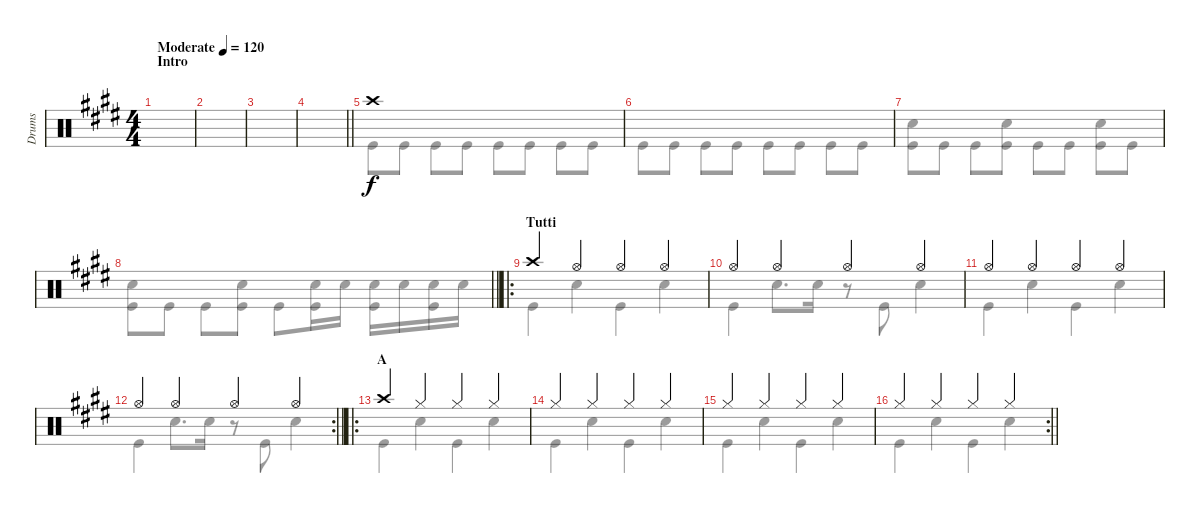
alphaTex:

\track ("Drums" "Drums") {instrument percussion}
\staff {score}
\articulation defaults
\voice
\ts (4 4)
\section ("" "Intro")
\tempo (120 "Moderate")
\clef neutral
\ks e
|
|
|
\barLineRight lightlight
|
"Crash high (hit)".1 |
|
|
\barLineRight lightlight
|
\ro
\section ("" "Tutti")
"Crash high (hit)".4 "Hi-Hat (open)".4 "Hi-Hat (open)".4 "Hi-Hat (open)".4 |
"Hi-Hat (open)".4 "Hi-Hat (open)".4 "Hi-Hat (open)".4 "Hi-Hat (open)".4 |
"Hi-Hat (open)".4 "Hi-Hat (open)".4 "Hi-Hat (open)".4 "Hi-Hat (open)".4 |
\rc 2
\barLineRight lightlight "Hi-Hat (open)".4 "Hi-Hat (open)".4 "Hi-Hat (open)".4 "Hi-Hat (open)".4
|
\ro
\section ("" "A")
"Crash high (hit)".4 "Hi-Hat (closed)".4 "Hi-Hat (closed)".4 "Hi-Hat (closed)".4 |
"Hi-Hat (closed)".4 "Hi-Hat (closed)".4 "Hi-Hat (closed)".4 "Hi-Hat (closed)".4 |
"Hi-Hat (closed)".4 "Hi-Hat (closed)".4 "Hi-Hat (closed)".4 "Hi-Hat (closed)".4 |
\rc 2
\barLineRight lightlight "Hi-Hat (closed)".4 "Hi-Hat (closed)".4 "Hi-Hat (closed)".4 "Hi-Hat (closed)".4
\voice
\clef neutral
\ottava regular
\simile none
\ks e
|
|
|
\barLineRight lightlight
|
"Kick (hit)".8 "Kick (hit)".8 "Kick (hit)".8 "Kick (hit)".8 "Kick (hit)".8 "Kick (hit)".8 "Kick (hit)".8 "Kick (hit)".8 |
"Kick (hit)".8 "Kick (hit)".8 "Kick (hit)".8 "Kick (hit)".8 "Kick (hit)".8 "Kick (hit)".8 "Kick (hit)".8 "Kick (hit)".8 |
("Snare (hit) 2" "Kick (hit)").8 "Kick (hit)".8 "Kick (hit)".8 ("Snare (hit) 2" "Kick (hit)").8 "Kick (hit)".8 "Kick (hit)".8 ("Snare (hit) 2" "Kick (hit)").8 "Kick (hit)".8 |
\barLineRight lightlight
("Snare (hit) 2" "Kick (hit)").8 "Kick (hit)".8 "Kick (hit)".8 ("Snare (hit) 2" "Kick (hit)").8 "Kick (hit)".8 ("Snare (hit) 2" "Kick (hit)").16 "Snare (hit) 2".16 ("Snare (hit) 2" "Kick (hit)").16 "Snare (hit) 2".16 ("Snare (hit) 2" "Kick (hit)").16 "Snare (hit) 2".16 |
"Kick (hit)".4 "Snare (hit) 2".4 "Kick (hit)".4 "Snare (hit) 2".4 |
"Kick (hit)".4 "Snare (hit) 2".8{d} "Snare (hit) 2".16 r.8 "Kick (hit)".8 "Snare (hit) 2".4 |
"Kick (hit)".4 "Snare (hit) 2".4 "Kick (hit)".4 "Snare (hit) 2".4 |
\barLineRight lightlight "Kick (hit)".4 "Snare (hit) 2".8{d} "Snare (hit) 2".16
r.8 "Kick (hit)".8 "Snare (hit) 2".4 |
"Kick (hit)".4 "Snare (hit) 2".4 "Kick (hit)".4 "Snare (hit) 2".4 |
"Kick (hit)".4 "Snare (hit) 2".4 "Kick (hit)".4 "Snare (hit) 2".4 |
"Kick (hit)".4 "Snare (hit) 2".4 "Kick (hit)".4 "Snare (hit) 2".4 |
\barLineRight lightlight "Kick (hit)".4 "Snare (hit) 2".4 "Kick (hit)".4 "Snare (hit) 2".4
